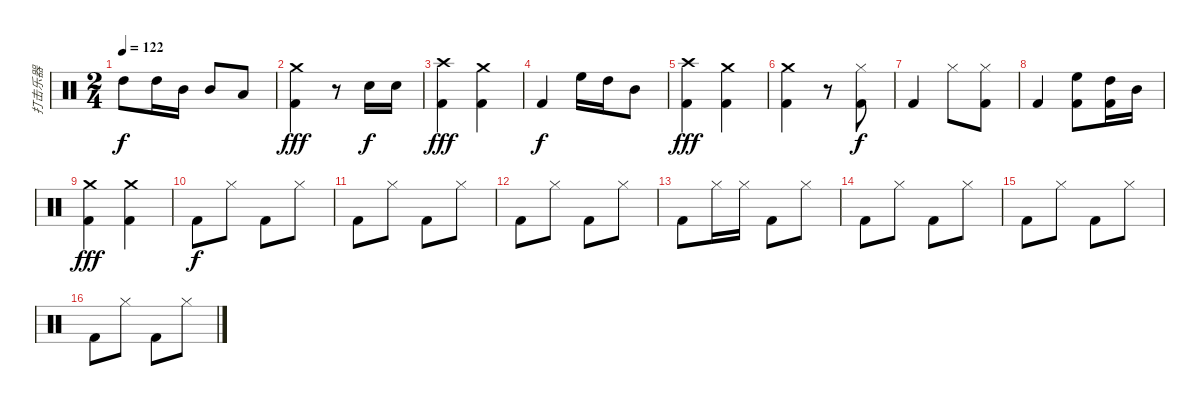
\track ("打击乐器" "打击乐器") {instrument percussion}
\staff {score}
\articulation defaults
\ts (2 4)
\tempo 122
\clef neutral
\ks c "High Tom (hit)".8{dy f} "High Tom (hit)".16 "Mid Tom (hit)".16 "Mid Tom (hit)".8 "Low Tom (hit)".8
|
("Crash medium (hit)" "Kick (hit) 2").4{dy fff} r.8 "Snare (hit) 2".16{dy f} "Snare (hit) 2".16 |
("Crash high (hit)" "Kick (hit) 2").4{dy fff} ("Crash medium (hit)" "Kick (hit) 2").4 |
"Kick (hit) 2".4{dy f} "High Floor Tom (hit)".16 "High Tom (hit)".16 "Mid Tom (hit)".8 |
("Crash high (hit)" "Kick (hit) 2").4{dy fff} ("Crash medium (hit)" "Kick (hit) 2").4 |
("Crash medium (hit)" "Kick (hit) 2").4 r.8 ("Hi-Hat (closed)" "Kick (hit) 2").8{dy f} |
"Kick (hit) 2".4 "Hi-Hat (closed)".8 ("Hi-Hat (closed)" "Kick (hit) 2").8 |
"Kick (hit) 2".4 ("High Floor Tom (hit)" "Kick (hit) 2").8 ("High Tom (hit)" "Kick (hit) 2").16 "Mid Tom (hit)".16 |
("Crash medium (hit)" "Kick (hit) 2").4{dy fff} ("Crash medium (hit)" "Kick (hit) 2").4 |
"Kick (hit) 2".8{dy f} "Hi-Hat (closed)".8 "Kick (hit) 2".8 "Hi-Hat (closed)".8 |
"Kick (hit) 2".8 "Hi-Hat (closed)".8 "Kick (hit) 2".8 "Hi-Hat (closed)".8 |
"Kick (hit) 2".8 "Hi-Hat (closed)".8 "Kick (hit) 2".8 "Hi-Hat (closed)".8 |
"Kick (hit) 2".8 "Hi-Hat (closed)".16 "Hi-Hat (closed)".16 "Kick (hit) 2".8 "Hi-Hat (closed)".8 |
"Kick (hit) 2".8 "Hi-Hat (closed)".8 "Kick (hit) 2".8 "Hi-Hat (closed)".8 |
"Kick (hit) 2".8 "Hi-Hat (closed)".8 "Kick (hit) 2".8 "Hi-Hat (closed)".8 |
"Kick (hit) 2".8 "Hi-Hat (closed)".8 "Kick (hit) 2".8 "Hi-Hat (closed)".8
